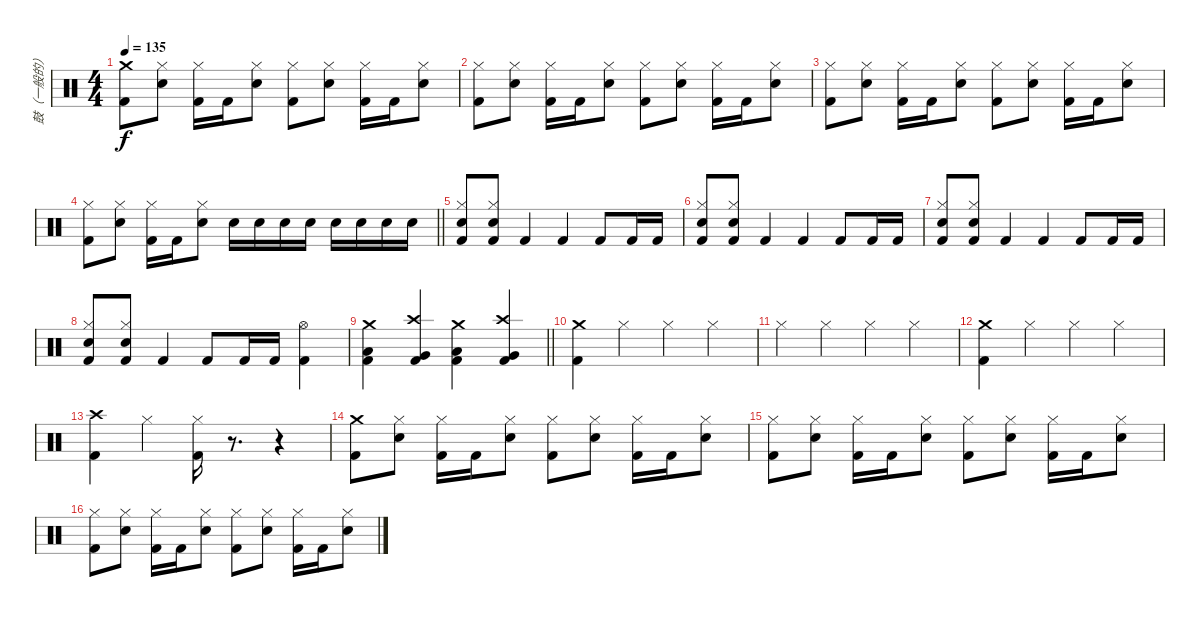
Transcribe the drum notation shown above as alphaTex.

\track ("鼓（一般的）" "鼓（一般的）") {instrument percussion}
\staff {score}
\articulation defaults
\ts (4 4)
\tempo 135
\clef neutral
\ks c
("Crash medium (hit)" "Kick (hit) 2").8{dy f} ("Hi-Hat (closed)" "Snare (hit) 2").8 ("Hi-Hat (closed)" "Kick (hit) 2").16 "Kick (hit) 2".16 ("Hi-Hat (closed)" "Snare (hit) 2").8 ("Hi-Hat (closed)" "Kick (hit) 2").8 ("Hi-Hat (closed)" "Snare (hit) 2").8 ("Hi-Hat (closed)" "Kick (hit) 2").16 "Kick (hit) 2".16 ("Hi-Hat (closed)" "Snare (hit) 2").8 |
("Hi-Hat (closed)" "Kick (hit) 2").8 ("Hi-Hat (closed)" "Snare (hit) 2").8 ("Hi-Hat (closed)" "Kick (hit) 2").16 "Kick (hit) 2".16 ("Hi-Hat (closed)" "Snare (hit) 2").8 ("Hi-Hat (closed)" "Kick (hit) 2").8 ("Hi-Hat (closed)" "Snare (hit) 2").8 ("Hi-Hat (closed)" "Kick (hit) 2").16 "Kick (hit) 2".16 ("Hi-Hat (closed)" "Snare (hit) 2").8 |
("Hi-Hat (closed)" "Kick (hit) 2").8 ("Hi-Hat (closed)" "Snare (hit) 2").8 ("Hi-Hat (closed)" "Kick (hit) 2").16 "Kick (hit) 2".16 ("Hi-Hat (closed)" "Snare (hit) 2").8 ("Hi-Hat (closed)" "Kick (hit) 2").8 ("Hi-Hat (closed)" "Snare (hit) 2").8 ("Hi-Hat (closed)" "Kick (hit) 2").16 "Kick (hit) 2".16 ("Hi-Hat (closed)" "Snare (hit) 2").8 |
\barLineRight lightlight
("Hi-Hat (closed)" "Kick (hit) 2").8 ("Hi-Hat (closed)" "Snare (hit) 2").8 ("Hi-Hat (closed)" "Kick (hit) 2").16 "Kick (hit) 2".16 ("Hi-Hat (closed)" "Snare (hit) 2").8 "Snare (hit) 2".16 "Snare (hit) 2".16 "Snare (hit) 2".16 "Snare (hit) 2".16 "Snare (hit) 2".16 "Snare (hit) 2".16 "Snare (hit) 2".16 "Snare (hit) 2".16 |
("Hi-Hat (closed)" "Snare (hit) 2" "Kick (hit) 2").8 ("Hi-Hat (closed)" "Snare (hit) 2" "Kick (hit) 2").8 "Kick (hit) 2".4 "Kick (hit) 2".4 "Kick (hit) 2".8 "Kick (hit) 2".16 "Kick (hit) 2".16 |
("Hi-Hat (closed)" "Snare (hit) 2" "Kick (hit) 2").8 ("Hi-Hat (closed)" "Snare (hit) 2" "Kick (hit) 2").8 "Kick (hit) 2".4 "Kick (hit) 2".4 "Kick (hit) 2".8 "Kick (hit) 2".16 "Kick (hit) 2".16 |
("Hi-Hat (closed)" "Snare (hit) 2" "Kick (hit) 2").8 ("Hi-Hat (closed)" "Snare (hit) 2" "Kick (hit) 2").8 "Kick (hit) 2".4 "Kick (hit) 2".4 "Kick (hit) 2".8 "Kick (hit) 2".16 "Kick (hit) 2".16 |
("Hi-Hat (closed)" "Snare (hit) 2" "Kick (hit) 2").8 ("Hi-Hat (closed)" "Snare (hit) 2" "Kick (hit) 2").8 "Kick (hit) 2".4 "Kick (hit) 2".8 "Kick (hit) 2".16 "Kick (hit) 2".16 ("Hi-Hat (open)" "Kick (hit) 2").4 |
\barLineRight lightlight
("Crash medium (hit)" "Low Floor Tom (hit)" "Kick (hit) 2").4 ("Crash high (hit)" "Very Low Tom (hit)" "Kick (hit) 2").4 ("Crash medium (hit)" "Low Tom (hit)" "Kick (hit) 2").4 ("Crash high (hit)" "Very Low Tom (hit)" "Kick (hit) 2").4 |
("Crash medium (hit)" "Kick (hit) 2").4 "Hi-Hat (closed)".4 "Hi-Hat (closed)".4 "Hi-Hat (closed)".4 |
"Hi-Hat (closed)".4 "Hi-Hat (closed)".4 "Hi-Hat (closed)".4 "Hi-Hat (closed)".4 |
("Crash medium (hit)" "Kick (hit) 2").4 "Hi-Hat (closed)".4 "Hi-Hat (closed)".4 "Hi-Hat (closed)".4 |
("Crash high (hit)" "Kick (hit) 2").4 "Hi-Hat (closed)".4 ("Hi-Hat (closed)" "Kick (hit) 2").16 r.8{d} r.4 |
("Crash medium (hit)" "Kick (hit) 2").8 ("Hi-Hat (closed)" "Snare (hit) 2").8 ("Hi-Hat (closed)" "Kick (hit) 2").16 "Kick (hit) 2".16 ("Hi-Hat (closed)" "Snare (hit) 2").8 ("Hi-Hat (closed)" "Kick (hit) 2").8 ("Hi-Hat (closed)" "Snare (hit) 2").8 ("Hi-Hat (closed)" "Kick (hit) 2").16 "Kick (hit) 2".16 ("Hi-Hat (closed)" "Snare (hit) 2").8 |
("Hi-Hat (closed)" "Kick (hit) 2").8 ("Hi-Hat (closed)" "Snare (hit) 2").8 ("Hi-Hat (closed)" "Kick (hit) 2").16 "Kick (hit) 2".16 ("Hi-Hat (closed)" "Snare (hit) 2").8 ("Hi-Hat (closed)" "Kick (hit) 2").8 ("Hi-Hat (closed)" "Snare (hit) 2").8 ("Hi-Hat (closed)" "Kick (hit) 2").16 "Kick (hit) 2".16 ("Hi-Hat (closed)" "Snare (hit) 2").8 |
("Hi-Hat (closed)" "Kick (hit) 2").8 ("Hi-Hat (closed)" "Snare (hit) 2").8 ("Hi-Hat (closed)" "Kick (hit) 2").16 "Kick (hit) 2".16 ("Hi-Hat (closed)" "Snare (hit) 2").8 ("Hi-Hat (closed)" "Kick (hit) 2").8 ("Hi-Hat (closed)" "Snare (hit) 2").8 ("Hi-Hat (closed)" "Kick (hit) 2").16 "Kick (hit) 2".16 ("Hi-Hat (closed)" "Snare (hit) 2").8
